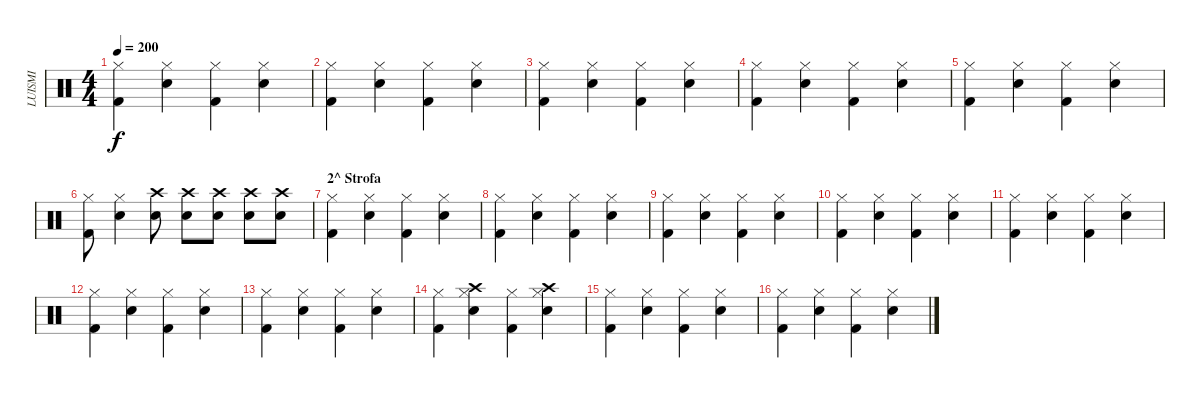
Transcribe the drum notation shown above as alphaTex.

\track ("LUISMI" "LUISMI") {instrument percussion}
\staff {score}
\articulation defaults
\ts (4 4)
\tempo 200
\clef neutral
\ks c
("Hi-Hat (closed)" "Kick (hit) 2").4{dy f} ("Hi-Hat (closed)" "Snare (hit) 2").4 ("Hi-Hat (closed)" "Kick (hit) 2").4 ("Hi-Hat (closed)" "Snare (hit) 2").4 |
("Hi-Hat (closed)" "Kick (hit) 2").4 ("Hi-Hat (closed)" "Snare (hit) 2").4 ("Hi-Hat (closed)" "Kick (hit) 2").4 ("Hi-Hat (closed)" "Snare (hit) 2").4 |
("Hi-Hat (closed)" "Kick (hit) 2").4 ("Hi-Hat (closed)" "Snare (hit) 2").4 ("Hi-Hat (closed)" "Kick (hit) 2").4 ("Hi-Hat (closed)" "Snare (hit) 2").4 |
("Hi-Hat (closed)" "Kick (hit) 2").4 ("Hi-Hat (closed)" "Snare (hit) 2").4 ("Hi-Hat (closed)" "Kick (hit) 2").4 ("Hi-Hat (closed)" "Snare (hit) 2").4 |
("Hi-Hat (closed)" "Kick (hit) 2").4 ("Hi-Hat (closed)" "Snare (hit) 2").4 ("Hi-Hat (closed)" "Kick (hit) 2").4 ("Hi-Hat (closed)" "Snare (hit) 2").4 |
("Hi-Hat (closed)" "Kick (hit) 2").8 ("Hi-Hat (closed)" "Snare (hit) 2").4 ("Snare (hit) 2" "Crash high (hit)").8 ("Snare (hit) 2" "Crash high (hit)").8 ("Snare (hit) 2" "Crash high (hit)").8 ("Snare (hit) 2" "Crash high (hit)").8 ("Snare (hit) 2" "Crash high (hit)").8 |
\section ("" "2^ Strofa")
("Hi-Hat (closed)" "Kick (hit) 2").4 ("Hi-Hat (closed)" "Snare (hit) 2").4 ("Hi-Hat (closed)" "Kick (hit) 2").4 ("Hi-Hat (closed)" "Snare (hit) 2").4 |
("Hi-Hat (closed)" "Kick (hit) 2").4 ("Hi-Hat (closed)" "Snare (hit) 2").4 ("Hi-Hat (closed)" "Kick (hit) 2").4 ("Hi-Hat (closed)" "Snare (hit) 2").4 |
("Hi-Hat (closed)" "Kick (hit) 2").4 ("Hi-Hat (closed)" "Snare (hit) 2").4 ("Hi-Hat (closed)" "Kick (hit) 2").4 ("Hi-Hat (closed)" "Snare (hit) 2").4 |
("Hi-Hat (closed)" "Kick (hit) 2").4 ("Hi-Hat (closed)" "Snare (hit) 2").4 ("Hi-Hat (closed)" "Kick (hit) 2").4 ("Hi-Hat (closed)" "Snare (hit) 2").4 |
("Hi-Hat (closed)" "Kick (hit) 2").4 ("Hi-Hat (closed)" "Snare (hit) 2").4 ("Hi-Hat (closed)" "Kick (hit) 2").4 ("Hi-Hat (closed)" "Snare (hit) 2").4 |
("Hi-Hat (closed)" "Kick (hit) 2").4 ("Hi-Hat (closed)" "Snare (hit) 2").4 ("Hi-Hat (closed)" "Kick (hit) 2").4 ("Hi-Hat (closed)" "Snare (hit) 2").4 |
("Hi-Hat (closed)" "Kick (hit) 2").4 ("Hi-Hat (closed)" "Snare (hit) 2").4 ("Hi-Hat (closed)" "Kick (hit) 2").4 ("Hi-Hat (closed)" "Snare (hit) 2").4 |
("Hi-Hat (closed)" "Kick (hit) 2").4 ("Hi-Hat (closed)" "Snare (hit) 2" "Crash high (hit)").4 ("Hi-Hat (closed)" "Kick (hit) 2").4 ("Hi-Hat (closed)" "Snare (hit) 2" "Crash high (hit)").4 |
("Hi-Hat (closed)" "Kick (hit) 2").4 ("Hi-Hat (closed)" "Snare (hit) 2").4 ("Hi-Hat (closed)" "Kick (hit) 2").4 ("Hi-Hat (closed)" "Snare (hit) 2").4 |
("Hi-Hat (closed)" "Kick (hit) 2").4 ("Hi-Hat (closed)" "Snare (hit) 2").4 ("Hi-Hat (closed)" "Kick (hit) 2").4 ("Hi-Hat (closed)" "Snare (hit) 2").4
